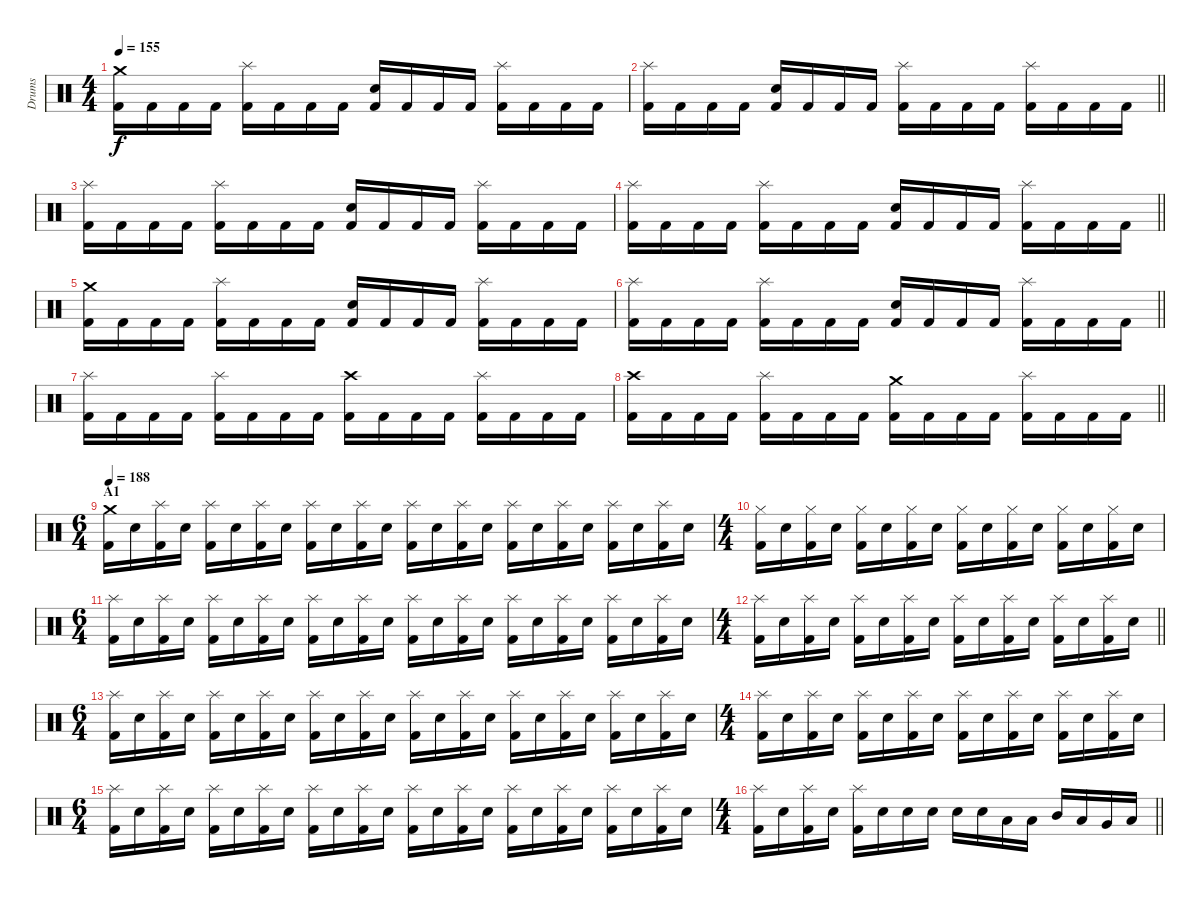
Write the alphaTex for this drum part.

\track ("Drums" "Drums") {instrument percussion}
\staff {score}
\articulation defaults
\ts (4 4)
\section ("" "")
\tempo 155
\clef neutral
\ks c
("Crash medium (hit)" "Kick (hit) 2").16{dy f} "Kick (hit) 2".16 "Kick (hit) 2".16 "Kick (hit) 2".16 ("Splash (hit)" "Kick (hit) 2").16 "Kick (hit) 2".16 "Kick (hit) 2".16 "Kick (hit) 2".16 ("Electric Snare (hit)" "Kick (hit) 2").16 "Kick (hit) 2".16 "Kick (hit) 2".16 "Kick (hit) 2".16 ("Splash (hit)" "Kick (hit) 2").16 "Kick (hit) 2".16 "Kick (hit) 2".16 "Kick (hit) 2".16 |
\barLineRight lightlight
("Splash (hit)" "Kick (hit) 2").16 "Kick (hit) 2".16 "Kick (hit) 2".16 "Kick (hit) 2".16 ("Electric Snare (hit)" "Kick (hit) 2").16 "Kick (hit) 2".16 "Kick (hit) 2".16 "Kick (hit) 2".16 ("Splash (hit)" "Kick (hit) 2").16 "Kick (hit) 2".16 "Kick (hit) 2".16 "Kick (hit) 2".16 ("Splash (hit)" "Kick (hit) 2").16 "Kick (hit) 2".16 "Kick (hit) 2".16 "Kick (hit) 2".16 |
("Splash (hit)" "Kick (hit) 2").16 "Kick (hit) 2".16 "Kick (hit) 2".16 "Kick (hit) 2".16 ("Splash (hit)" "Kick (hit) 2").16 "Kick (hit) 2".16 "Kick (hit) 2".16 "Kick (hit) 2".16 ("Electric Snare (hit)" "Kick (hit) 2").16 "Kick (hit) 2".16 "Kick (hit) 2".16 "Kick (hit) 2".16 ("Splash (hit)" "Kick (hit) 2").16 "Kick (hit) 2".16 "Kick (hit) 2".16 "Kick (hit) 2".16 |
\barLineRight lightlight
("Splash (hit)" "Kick (hit) 2").16 "Kick (hit) 2".16 "Kick (hit) 2".16 "Kick (hit) 2".16 ("Splash (hit)" "Kick (hit) 2").16 "Kick (hit) 2".16 "Kick (hit) 2".16 "Kick (hit) 2".16 ("Electric Snare (hit)" "Kick (hit) 2").16 "Kick (hit) 2".16 "Kick (hit) 2".16 "Kick (hit) 2".16 ("Splash (hit)" "Kick (hit) 2").16 "Kick (hit) 2".16 "Kick (hit) 2".16 "Kick (hit) 2".16 |
\section ("" "")
("Crash medium (hit)" "Kick (hit) 2").16 "Kick (hit) 2".16 "Kick (hit) 2".16 "Kick (hit) 2".16 ("Splash (hit)" "Kick (hit) 2").16 "Kick (hit) 2".16 "Kick (hit) 2".16 "Kick (hit) 2".16 ("Electric Snare (hit)" "Kick (hit) 2").16 "Kick (hit) 2".16 "Kick (hit) 2".16 "Kick (hit) 2".16 ("Splash (hit)" "Kick (hit) 2").16 "Kick (hit) 2".16 "Kick (hit) 2".16 "Kick (hit) 2".16 |
\barLineRight lightlight
("Splash (hit)" "Kick (hit) 2").16 "Kick (hit) 2".16 "Kick (hit) 2".16 "Kick (hit) 2".16 ("Splash (hit)" "Kick (hit) 2").16 "Kick (hit) 2".16 "Kick (hit) 2".16 "Kick (hit) 2".16 ("Electric Snare (hit)" "Kick (hit) 2").16 "Kick (hit) 2".16 "Kick (hit) 2".16 "Kick (hit) 2".16 ("Splash (hit)" "Kick (hit) 2").16 "Kick (hit) 2".16 "Kick (hit) 2".16 "Kick (hit) 2".16 |
("Splash (hit)" "Kick (hit) 2").16 "Kick (hit) 2".16 "Kick (hit) 2".16 "Kick (hit) 2".16 ("Splash (hit)" "Kick (hit) 2").16 "Kick (hit) 2".16 "Kick (hit) 2".16 "Kick (hit) 2".16 ("Crash high (hit)" "Kick (hit) 2").16 "Kick (hit) 2".16 "Kick (hit) 2".16 "Kick (hit) 2".16 ("Splash (hit)" "Kick (hit) 2").16 "Kick (hit) 2".16 "Kick (hit) 2".16 "Kick (hit) 2".16 |
\barLineRight lightlight
("Crash high (hit)" "Kick (hit) 2").16 "Kick (hit) 2".16 "Kick (hit) 2".16 "Kick (hit) 2".16 ("Splash (hit)" "Kick (hit) 2").16 "Kick (hit) 2".16 "Kick (hit) 2".16 "Kick (hit) 2".16 ("Crash medium (hit)" "Kick (hit) 2").16 "Kick (hit) 2".16 "Kick (hit) 2".16 "Kick (hit) 2".16 ("Splash (hit)" "Kick (hit) 2").16 "Kick (hit) 2".16 "Kick (hit) 2".16 "Kick (hit) 2".16 |
\ts (6 4)
\section ("" "A1")
\tempo 188
("Crash medium (hit)" "Kick (hit) 2").16 "Electric Snare (hit)".16 ("Splash (hit)" "Kick (hit) 2").16 "Electric Snare (hit)".16 ("Splash (hit)" "Kick (hit) 2").16 "Electric Snare (hit)".16 ("Splash (hit)" "Kick (hit) 2").16 "Electric Snare (hit)".16 ("Splash (hit)" "Kick (hit) 2").16 "Electric Snare (hit)".16 ("Splash (hit)" "Kick (hit) 2").16 "Electric Snare (hit)".16 ("Splash (hit)" "Kick (hit) 2").16 "Electric Snare (hit)".16 ("Splash (hit)" "Kick (hit) 2").16 "Electric Snare (hit)".16 ("Splash (hit)" "Kick (hit) 2").16 "Electric Snare (hit)".16 ("Splash (hit)" "Kick (hit) 2").16 "Electric Snare (hit)".16 ("Splash (hit)" "Kick (hit) 2").16 "Electric Snare (hit)".16 ("Splash (hit)" "Kick (hit) 2").16 "Electric Snare (hit)".16 |
\ts (4 4)
("Hi-Hat (closed)" "Kick (hit) 2").16 "Electric Snare (hit)".16 ("Hi-Hat (closed)" "Kick (hit) 2").16 "Electric Snare (hit)".16 ("Hi-Hat (closed)" "Kick (hit) 2").16 "Electric Snare (hit)".16 ("Hi-Hat (closed)" "Kick (hit) 2").16 "Electric Snare (hit)".16 ("Hi-Hat (closed)" "Kick (hit) 2").16 "Electric Snare (hit)".16 ("Hi-Hat (closed)" "Kick (hit) 2").16 "Electric Snare (hit)".16 ("Hi-Hat (closed)" "Kick (hit) 2").16 "Electric Snare (hit)".16 ("Hi-Hat (closed)" "Kick (hit) 2").16 "Electric Snare (hit)".16 |
\ts (6 4)
("Splash (hit)" "Kick (hit) 2").16 "Electric Snare (hit)".16 ("Splash (hit)" "Kick (hit) 2").16 "Electric Snare (hit)".16 ("Splash (hit)" "Kick (hit) 2").16 "Electric Snare (hit)".16 ("Splash (hit)" "Kick (hit) 2").16 "Electric Snare (hit)".16 ("Splash (hit)" "Kick (hit) 2").16 "Electric Snare (hit)".16 ("Splash (hit)" "Kick (hit) 2").16 "Electric Snare (hit)".16 ("Splash (hit)" "Kick (hit) 2").16 "Electric Snare (hit)".16 ("Splash (hit)" "Kick (hit) 2").16 "Electric Snare (hit)".16 ("Splash (hit)" "Kick (hit) 2").16 "Electric Snare (hit)".16 ("Splash (hit)" "Kick (hit) 2").16 "Electric Snare (hit)".16 ("Splash (hit)" "Kick (hit) 2").16 "Electric Snare (hit)".16 ("Splash (hit)" "Kick (hit) 2").16 "Electric Snare (hit)".16 |
\ts (4 4)
\barLineRight lightlight
("Splash (hit)" "Kick (hit) 2").16 "Electric Snare (hit)".16 ("Splash (hit)" "Kick (hit) 2").16 "Electric Snare (hit)".16 ("Splash (hit)" "Kick (hit) 2").16 "Electric Snare (hit)".16 ("Splash (hit)" "Kick (hit) 2").16 "Electric Snare (hit)".16 ("Splash (hit)" "Kick (hit) 2").16 "Electric Snare (hit)".16 ("Splash (hit)" "Kick (hit) 2").16 "Electric Snare (hit)".16 ("Splash (hit)" "Kick (hit) 2").16 "Electric Snare (hit)".16 ("Splash (hit)" "Kick (hit) 2").16 "Electric Snare (hit)".16 |
\ts (6 4)
\section ("" "")
("Splash (hit)" "Kick (hit) 2").16 "Electric Snare (hit)".16 ("Splash (hit)" "Kick (hit) 2").16 "Electric Snare (hit)".16 ("Splash (hit)" "Kick (hit) 2").16 "Electric Snare (hit)".16 ("Splash (hit)" "Kick (hit) 2").16 "Electric Snare (hit)".16 ("Splash (hit)" "Kick (hit) 2").16 "Electric Snare (hit)".16 ("Splash (hit)" "Kick (hit) 2").16 "Electric Snare (hit)".16 ("Splash (hit)" "Kick (hit) 2").16 "Electric Snare (hit)".16 ("Splash (hit)" "Kick (hit) 2").16 "Electric Snare (hit)".16 ("Splash (hit)" "Kick (hit) 2").16 "Electric Snare (hit)".16 ("Splash (hit)" "Kick (hit) 2").16 "Electric Snare (hit)".16 ("Splash (hit)" "Kick (hit) 2").16 "Electric Snare (hit)".16 ("Splash (hit)" "Kick (hit) 2").16 "Electric Snare (hit)".16 |
\ts (4 4)
("Splash (hit)" "Kick (hit) 2").16 "Electric Snare (hit)".16 ("Splash (hit)" "Kick (hit) 2").16 "Electric Snare (hit)".16 ("Splash (hit)" "Kick (hit) 2").16 "Electric Snare (hit)".16 ("Splash (hit)" "Kick (hit) 2").16 "Electric Snare (hit)".16 ("Splash (hit)" "Kick (hit) 2").16 "Electric Snare (hit)".16 ("Splash (hit)" "Kick (hit) 2").16 "Electric Snare (hit)".16 ("Splash (hit)" "Kick (hit) 2").16 "Electric Snare (hit)".16 ("Splash (hit)" "Kick (hit) 2").16 "Electric Snare (hit)".16 |
\ts (6 4)
("Splash (hit)" "Kick (hit) 2").16 "Electric Snare (hit)".16 ("Splash (hit)" "Kick (hit) 2").16 "Electric Snare (hit)".16 ("Splash (hit)" "Kick (hit) 2").16 "Electric Snare (hit)".16 ("Splash (hit)" "Kick (hit) 2").16 "Electric Snare (hit)".16 ("Splash (hit)" "Kick (hit) 2").16 "Electric Snare (hit)".16 ("Splash (hit)" "Kick (hit) 2").16 "Electric Snare (hit)".16 ("Splash (hit)" "Kick (hit) 2").16 "Electric Snare (hit)".16 ("Splash (hit)" "Kick (hit) 2").16 "Electric Snare (hit)".16 ("Splash (hit)" "Kick (hit) 2").16 "Electric Snare (hit)".16 ("Splash (hit)" "Kick (hit) 2").16 "Electric Snare (hit)".16 ("Splash (hit)" "Kick (hit) 2").16 "Electric Snare (hit)".16 ("Splash (hit)" "Kick (hit) 2").16 "Electric Snare (hit)".16 |
\ts (4 4)
\barLineRight lightlight
("Splash (hit)" "Kick (hit) 2").16 "Electric Snare (hit)".16 ("Splash (hit)" "Kick (hit) 2").16 "Electric Snare (hit)".16 ("Splash (hit)" "Kick (hit) 2").16 "Electric Snare (hit)".16 "Electric Snare (hit)".16 "Electric Snare (hit)".16 "Electric Snare (hit)".16 "Electric Snare (hit)".16 "Low Tom (hit)".16 "Low Tom (hit)".16 "Mid Tom (hit)".16 "Low Tom (hit)".16 "Very Low Tom (hit)".16 "Low Floor Tom (hit)".16
